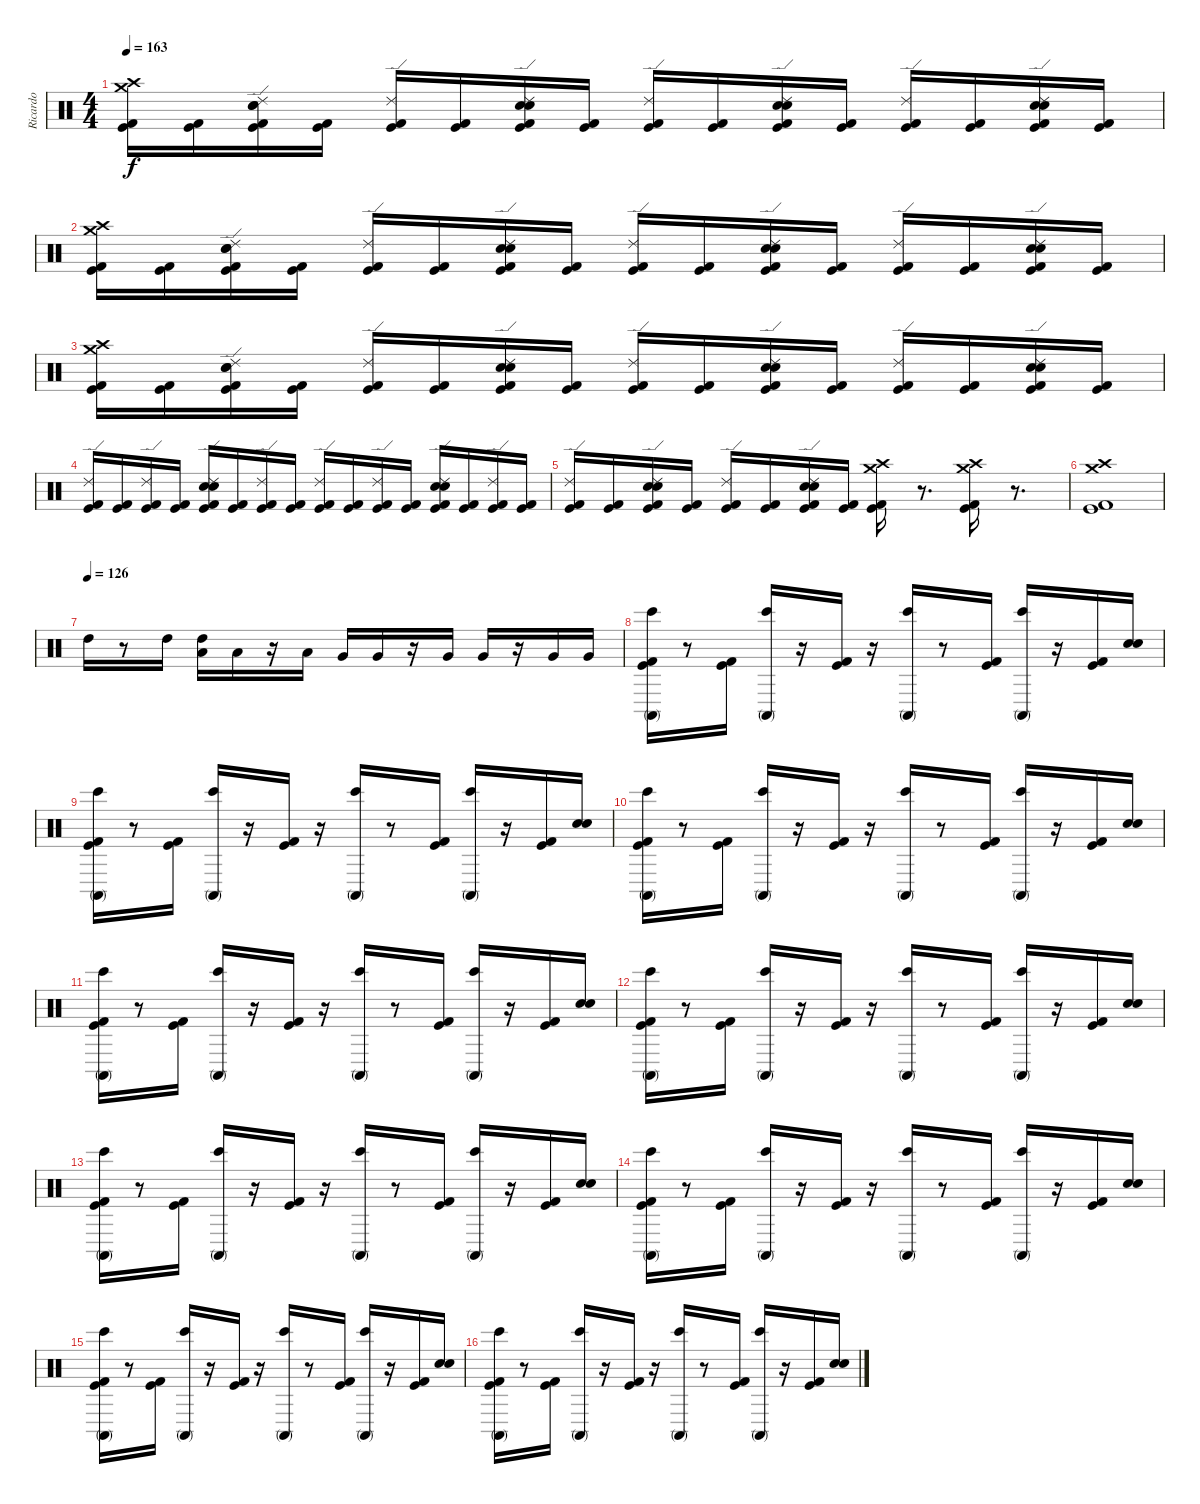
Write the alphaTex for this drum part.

\track ("Ricardo" "Ricardo") {instrument percussion}
\staff {score}
\articulation defaults
\ts (4 4)
\tempo 163
\clef neutral
\ks c
("Crash high (hit)" "Crash medium (hit)" "Kick (hit) 2" "Kick (hit)").16{dy f} ("Kick (hit) 2" "Kick (hit)").16 ("Ride (edge) 2" "Electric Snare (hit)" "Snare (hit) 2" "Kick (hit) 2" "Kick (hit)").16 ("Kick (hit) 2" "Kick (hit)").16 ("Ride (edge) 2" "Kick (hit) 2" "Kick (hit)").16 ("Kick (hit) 2" "Kick (hit)").16 ("Ride (edge) 2" "Electric Snare (hit)" "Snare (hit) 2" "Kick (hit) 2" "Kick (hit)").16 ("Kick (hit) 2" "Kick (hit)").16 ("Ride (edge) 2" "Kick (hit) 2" "Kick (hit)").16 ("Kick (hit) 2" "Kick (hit)").16 ("Ride (edge) 2" "Electric Snare (hit)" "Snare (hit) 2" "Kick (hit) 2" "Kick (hit)").16 ("Kick (hit) 2" "Kick (hit)").16 ("Ride (edge) 2" "Kick (hit) 2" "Kick (hit)").16 ("Kick (hit) 2" "Kick (hit)").16 ("Ride (edge) 2" "Electric Snare (hit)" "Snare (hit) 2" "Kick (hit) 2" "Kick (hit)").16 ("Kick (hit) 2" "Kick (hit)").16 |
("Crash high (hit)" "Crash medium (hit)" "Kick (hit) 2" "Kick (hit)").16 ("Kick (hit) 2" "Kick (hit)").16 ("Ride (edge) 2" "Electric Snare (hit)" "Snare (hit) 2" "Kick (hit) 2" "Kick (hit)").16 ("Kick (hit) 2" "Kick (hit)").16 ("Ride (edge) 2" "Kick (hit) 2" "Kick (hit)").16 ("Kick (hit) 2" "Kick (hit)").16 ("Ride (edge) 2" "Electric Snare (hit)" "Snare (hit) 2" "Kick (hit) 2" "Kick (hit)").16 ("Kick (hit) 2" "Kick (hit)").16 ("Ride (edge) 2" "Kick (hit) 2" "Kick (hit)").16 ("Kick (hit) 2" "Kick (hit)").16 ("Ride (edge) 2" "Electric Snare (hit)" "Snare (hit) 2" "Kick (hit) 2" "Kick (hit)").16 ("Kick (hit) 2" "Kick (hit)").16 ("Ride (edge) 2" "Kick (hit) 2" "Kick (hit)").16 ("Kick (hit) 2" "Kick (hit)").16 ("Ride (edge) 2" "Electric Snare (hit)" "Snare (hit) 2" "Kick (hit) 2" "Kick (hit)").16 ("Kick (hit) 2" "Kick (hit)").16 |
("Crash high (hit)" "Crash medium (hit)" "Kick (hit) 2" "Kick (hit)").16 ("Kick (hit) 2" "Kick (hit)").16 ("Ride (edge) 2" "Electric Snare (hit)" "Snare (hit) 2" "Kick (hit) 2" "Kick (hit)").16 ("Kick (hit) 2" "Kick (hit)").16 ("Ride (edge) 2" "Kick (hit) 2" "Kick (hit)").16 ("Kick (hit) 2" "Kick (hit)").16 ("Ride (edge) 2" "Electric Snare (hit)" "Snare (hit) 2" "Kick (hit) 2" "Kick (hit)").16 ("Kick (hit) 2" "Kick (hit)").16 ("Ride (edge) 2" "Kick (hit) 2" "Kick (hit)").16 ("Kick (hit) 2" "Kick (hit)").16 ("Ride (edge) 2" "Electric Snare (hit)" "Snare (hit) 2" "Kick (hit) 2" "Kick (hit)").16 ("Kick (hit) 2" "Kick (hit)").16 ("Ride (edge) 2" "Kick (hit) 2" "Kick (hit)").16 ("Kick (hit) 2" "Kick (hit)").16 ("Ride (edge) 2" "Electric Snare (hit)" "Snare (hit) 2" "Kick (hit) 2" "Kick (hit)").16 ("Kick (hit) 2" "Kick (hit)").16 |
("Ride (edge) 2" "Kick (hit) 2" "Kick (hit)").16 ("Kick (hit) 2" "Kick (hit)").16 ("Ride (edge) 2" "Kick (hit) 2" "Kick (hit)").16 ("Kick (hit) 2" "Kick (hit)").16 ("Electric Snare (hit)" "Snare (hit) 2" "Ride (edge) 2" "Kick (hit) 2" "Kick (hit)").16 ("Kick (hit) 2" "Kick (hit)").16 ("Ride (edge) 2" "Kick (hit) 2" "Kick (hit)").16 ("Kick (hit) 2" "Kick (hit)").16 ("Ride (edge) 2" "Kick (hit) 2" "Kick (hit)").16 ("Kick (hit) 2" "Kick (hit)").16 ("Ride (edge) 2" "Kick (hit) 2" "Kick (hit)").16 ("Kick (hit) 2" "Kick (hit)").16 ("Electric Snare (hit)" "Snare (hit) 2" "Ride (edge) 2" "Kick (hit) 2" "Kick (hit)").16 ("Kick (hit) 2" "Kick (hit)").16 ("Ride (edge) 2" "Kick (hit) 2" "Kick (hit)").16 ("Kick (hit) 2" "Kick (hit)").16 |
("Ride (edge) 2" "Kick (hit) 2" "Kick (hit)").16 ("Kick (hit) 2" "Kick (hit)").16 ("Ride (edge) 2" "Electric Snare (hit)" "Snare (hit) 2" "Kick (hit) 2" "Kick (hit)").16 ("Kick (hit) 2" "Kick (hit)").16 ("Ride (edge) 2" "Kick (hit) 2" "Kick (hit)").16 ("Kick (hit) 2" "Kick (hit)").16 ("Ride (edge) 2" "Electric Snare (hit)" "Snare (hit) 2" "Kick (hit) 2" "Kick (hit)").16 ("Kick (hit) 2" "Kick (hit)").16 ("Crash medium (hit)" "Crash high (hit)" "Kick (hit) 2" "Kick (hit)").16 r.8{d} ("Crash medium (hit)" "Crash high (hit)" "Kick (hit) 2" "Kick (hit)").16 r.8{d} |
("Crash medium (hit)" "Crash high (hit)" "Kick (hit) 2" "Kick (hit)").1 |
\tempo (126)
"High Tom (hit)".16 r.8 "High Tom (hit)".16 ("Low Tom (hit)" "High Tom (hit)").16 "Low Tom (hit)".16 r.16 "Low Tom (hit)".16 "Very Low Tom (hit)".16 "Very Low Tom (hit)".16 r.16 "Very Low Tom (hit)".16 "Very Low Tom (hit)".16 r.16 "Very Low Tom (hit)".16 "Very Low Tom (hit)".16 |
("Conga high (mute)" "Bongo High (hit)" "Kick (hit) 2" "Kick (hit)").16 r.8 ("Kick (hit) 2" "Kick (hit)").16 ("Conga high (mute)" "Bongo High (hit)").16 r.16 ("Kick (hit) 2" "Kick (hit)").16 r.16 ("Conga high (mute)" "Bongo High (hit)").16 r.8 ("Kick (hit) 2" "Kick (hit)").16 ("Conga high (mute)" "Bongo High (hit)").16 r.16 ("Kick (hit) 2" "Kick (hit)").16 ("Electric Snare (hit)" "Snare (hit) 2").16 |
("Conga high (mute)" "Bongo High (hit)" "Kick (hit) 2" "Kick (hit)").16 r.8 ("Kick (hit) 2" "Kick (hit)").16 ("Conga high (mute)" "Bongo High (hit)").16 r.16 ("Kick (hit) 2" "Kick (hit)").16 r.16 ("Conga high (mute)" "Bongo High (hit)").16 r.8 ("Kick (hit) 2" "Kick (hit)").16 ("Conga high (mute)" "Bongo High (hit)").16 r.16 ("Kick (hit) 2" "Kick (hit)").16 ("Electric Snare (hit)" "Snare (hit) 2").16 |
("Conga high (mute)" "Bongo High (hit)" "Kick (hit) 2" "Kick (hit)").16 r.8 ("Kick (hit) 2" "Kick (hit)").16 ("Conga high (mute)" "Bongo High (hit)").16 r.16 ("Kick (hit) 2" "Kick (hit)").16 r.16 ("Conga high (mute)" "Bongo High (hit)").16 r.8 ("Kick (hit) 2" "Kick (hit)").16 ("Conga high (mute)" "Bongo High (hit)").16 r.16 ("Kick (hit) 2" "Kick (hit)").16 ("Electric Snare (hit)" "Snare (hit) 2").16 |
("Conga high (mute)" "Bongo High (hit)" "Kick (hit) 2" "Kick (hit)").16 r.8 ("Kick (hit) 2" "Kick (hit)").16 ("Conga high (mute)" "Bongo High (hit)").16 r.16 ("Kick (hit) 2" "Kick (hit)").16 r.16 ("Conga high (mute)" "Bongo High (hit)").16 r.8 ("Kick (hit) 2" "Kick (hit)").16 ("Conga high (mute)" "Bongo High (hit)").16 r.16 ("Kick (hit) 2" "Kick (hit)").16 ("Electric Snare (hit)" "Snare (hit) 2").16 |
("Conga high (mute)" "Bongo High (hit)" "Kick (hit) 2" "Kick (hit)").16 r.8 ("Kick (hit) 2" "Kick (hit)").16 ("Conga high (mute)" "Bongo High (hit)").16 r.16 ("Kick (hit) 2" "Kick (hit)").16 r.16 ("Conga high (mute)" "Bongo High (hit)").16 r.8 ("Kick (hit) 2" "Kick (hit)").16 ("Conga high (mute)" "Bongo High (hit)").16 r.16 ("Kick (hit) 2" "Kick (hit)").16 ("Electric Snare (hit)" "Snare (hit) 2").16 |
("Conga high (mute)" "Bongo High (hit)" "Kick (hit) 2" "Kick (hit)").16 r.8 ("Kick (hit) 2" "Kick (hit)").16 ("Conga high (mute)" "Bongo High (hit)").16 r.16 ("Kick (hit) 2" "Kick (hit)").16 r.16 ("Conga high (mute)" "Bongo High (hit)").16 r.8 ("Kick (hit) 2" "Kick (hit)").16 ("Conga high (mute)" "Bongo High (hit)").16 r.16 ("Kick (hit) 2" "Kick (hit)").16 ("Electric Snare (hit)" "Snare (hit) 2").16 |
("Conga high (mute)" "Bongo High (hit)" "Kick (hit) 2" "Kick (hit)").16 r.8 ("Kick (hit) 2" "Kick (hit)").16 ("Conga high (mute)" "Bongo High (hit)").16 r.16 ("Kick (hit) 2" "Kick (hit)").16 r.16 ("Conga high (mute)" "Bongo High (hit)").16 r.8 ("Kick (hit) 2" "Kick (hit)").16 ("Conga high (mute)" "Bongo High (hit)").16 r.16 ("Kick (hit) 2" "Kick (hit)").16 ("Electric Snare (hit)" "Snare (hit) 2").16 |
("Conga high (mute)" "Bongo High (hit)" "Kick (hit) 2" "Kick (hit)").16 r.8 ("Kick (hit) 2" "Kick (hit)").16 ("Conga high (mute)" "Bongo High (hit)").16 r.16 ("Kick (hit) 2" "Kick (hit)").16 r.16 ("Conga high (mute)" "Bongo High (hit)").16 r.8 ("Kick (hit) 2" "Kick (hit)").16 ("Conga high (mute)" "Bongo High (hit)").16 r.16 ("Kick (hit) 2" "Kick (hit)").16 ("Electric Snare (hit)" "Snare (hit) 2").16 |
("Conga high (mute)" "Bongo High (hit)" "Kick (hit) 2" "Kick (hit)").16 r.8 ("Kick (hit) 2" "Kick (hit)").16 ("Conga high (mute)" "Bongo High (hit)").16 r.16 ("Kick (hit) 2" "Kick (hit)").16 r.16 ("Conga high (mute)" "Bongo High (hit)").16 r.8 ("Kick (hit) 2" "Kick (hit)").16 ("Conga high (mute)" "Bongo High (hit)").16 r.16 ("Kick (hit) 2" "Kick (hit)").16 ("Electric Snare (hit)" "Snare (hit) 2").16
